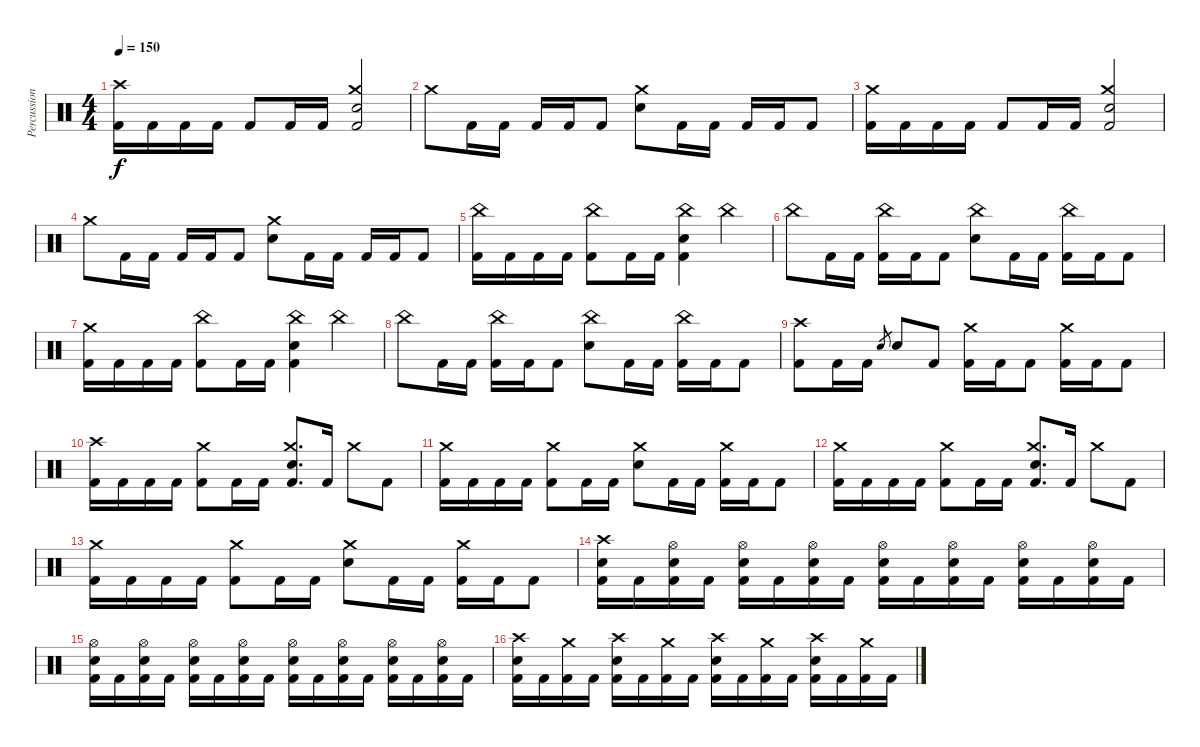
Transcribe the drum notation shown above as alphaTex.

\track ("Percussion" "Percussion") {instrument percussion}
\staff {score}
\articulation defaults
\ts (4 4)
\tempo 150
\clef neutral
\ks c
("Crash high (hit)" "Kick (hit) 2").16{dy f} "Kick (hit) 2".16 "Kick (hit) 2".16 "Kick (hit) 2".16 "Kick (hit) 2".8 "Kick (hit) 2".16 "Kick (hit) 2".16 ("Crash medium (hit)" "Electric Snare (hit)" "Kick (hit) 2").2 |
"Crash medium (hit)".8 "Kick (hit) 2".16 "Kick (hit) 2".16 "Kick (hit) 2".16 "Kick (hit) 2".16 "Kick (hit) 2".8 ("Crash medium (hit)" "Electric Snare (hit)").8 "Kick (hit) 2".16 "Kick (hit) 2".16 "Kick (hit) 2".16 "Kick (hit) 2".16 "Kick (hit) 2".8 |
("Crash medium (hit)" "Kick (hit) 2").16 "Kick (hit) 2".16 "Kick (hit) 2".16 "Kick (hit) 2".16 "Kick (hit) 2".8 "Kick (hit) 2".16 "Kick (hit) 2".16 ("Crash medium (hit)" "Electric Snare (hit)" "Kick (hit) 2").2 |
"Crash medium (hit)".8 "Kick (hit) 2".16 "Kick (hit) 2".16 "Kick (hit) 2".16 "Kick (hit) 2".16 "Kick (hit) 2".8 ("Crash medium (hit)" "Electric Snare (hit)").8 "Kick (hit) 2".16 "Kick (hit) 2".16 "Kick (hit) 2".16 "Kick (hit) 2".16 "Kick (hit) 2".8 |
("China (hit)" "Kick (hit) 2").16 "Kick (hit) 2".16 "Kick (hit) 2".16 "Kick (hit) 2".16 ("China (hit)" "Kick (hit) 2").8 "Kick (hit) 2".16 "Kick (hit) 2".16 ("China (hit)" "Electric Snare (hit)" "Kick (hit) 2").4 "China (hit)".4 |
"China (hit)".8 "Kick (hit) 2".16 "Kick (hit) 2".16 ("China (hit)" "Kick (hit) 2").16 "Kick (hit) 2".16 "Kick (hit) 2".8 ("China (hit)" "Electric Snare (hit)").8 "Kick (hit) 2".16 "Kick (hit) 2".16 ("China (hit)" "Kick (hit) 2").16 "Kick (hit) 2".16 "Kick (hit) 2".8 |
("Crash medium (hit)" "Kick (hit) 2").16 "Kick (hit) 2".16 "Kick (hit) 2".16 "Kick (hit) 2".16 ("China (hit)" "Kick (hit) 2").8 "Kick (hit) 2".16 "Kick (hit) 2".16 ("China (hit)" "Electric Snare (hit)" "Kick (hit) 2").4 "China (hit)".4 |
"China (hit)".8 "Kick (hit) 2".16 "Kick (hit) 2".16 ("China (hit)" "Kick (hit) 2").16 "Kick (hit) 2".16 "Kick (hit) 2".8 ("China (hit)" "Electric Snare (hit)").8 "Kick (hit) 2".16 "Kick (hit) 2".16 ("China (hit)" "Kick (hit) 2").16 "Kick (hit) 2".16 "Kick (hit) 2".8 |
("Crash high (hit)" "Kick (hit) 2").8 "Kick (hit) 2".16 "Kick (hit) 2".16 "Electric Snare (hit)".8{gr} "Electric Snare (hit)".8 "Kick (hit) 2".8 ("Crash medium (hit)" "Kick (hit) 2").16 "Kick (hit) 2".16 "Kick (hit) 2".8 ("Crash medium (hit)" "Kick (hit) 2").16 "Kick (hit) 2".16 "Kick (hit) 2".8 |
("Crash high (hit)" "Kick (hit) 2").16 "Kick (hit) 2".16 "Kick (hit) 2".16 "Kick (hit) 2".16 ("Crash medium (hit)" "Kick (hit) 2").8 "Kick (hit) 2".16 "Kick (hit) 2".16 ("Crash medium (hit)" "Electric Snare (hit)" "Kick (hit) 2").8{d} "Kick (hit) 2".16 "Crash medium (hit)".8 "Kick (hit) 2".8 |
("Crash medium (hit)" "Kick (hit) 2").16 "Kick (hit) 2".16 "Kick (hit) 2".16 "Kick (hit) 2".16 ("Crash medium (hit)" "Kick (hit) 2").8 "Kick (hit) 2".16 "Kick (hit) 2".16 ("Crash medium (hit)" "Electric Snare (hit)").8 "Kick (hit) 2".16 "Kick (hit) 2".16 ("Crash medium (hit)" "Kick (hit) 2").16 "Kick (hit) 2".16 "Kick (hit) 2".8 |
("Crash medium (hit)" "Kick (hit) 2").16 "Kick (hit) 2".16 "Kick (hit) 2".16 "Kick (hit) 2".16 ("Crash medium (hit)" "Kick (hit) 2").8 "Kick (hit) 2".16 "Kick (hit) 2".16 ("Crash medium (hit)" "Electric Snare (hit)" "Kick (hit) 2").8{d} "Kick (hit) 2".16 "Crash medium (hit)".8 "Kick (hit) 2".8 |
("Crash medium (hit)" "Kick (hit) 2").16 "Kick (hit) 2".16 "Kick (hit) 2".16 "Kick (hit) 2".16 ("Crash medium (hit)" "Kick (hit) 2").8 "Kick (hit) 2".16 "Kick (hit) 2".16 ("Crash medium (hit)" "Electric Snare (hit)").8 "Kick (hit) 2".16 "Kick (hit) 2".16 ("Crash medium (hit)" "Kick (hit) 2").16 "Kick (hit) 2".16 "Kick (hit) 2".8 |
("Crash high (hit)" "Electric Snare (hit)" "Kick (hit) 2").16 "Kick (hit) 2".16 ("Hi-Hat (open)" "Electric Snare (hit)" "Kick (hit) 2").16 "Kick (hit) 2".16 ("Hi-Hat (open)" "Electric Snare (hit)" "Kick (hit) 2").16 "Kick (hit) 2".16 ("Hi-Hat (open)" "Electric Snare (hit)" "Kick (hit) 2").16 "Kick (hit) 2".16 ("Hi-Hat (open)" "Electric Snare (hit)" "Kick (hit) 2").16 "Kick (hit) 2".16 ("Hi-Hat (open)" "Electric Snare (hit)" "Kick (hit) 2").16 "Kick (hit) 2".16 ("Hi-Hat (open)" "Electric Snare (hit)" "Kick (hit) 2").16 "Kick (hit) 2".16 ("Hi-Hat (open)" "Electric Snare (hit)" "Kick (hit) 2").16 "Kick (hit) 2".16 |
("Hi-Hat (open)" "Electric Snare (hit)" "Kick (hit) 2").16 "Kick (hit) 2".16 ("Hi-Hat (open)" "Electric Snare (hit)" "Kick (hit) 2").16 "Kick (hit) 2".16 ("Hi-Hat (open)" "Electric Snare (hit)" "Kick (hit) 2").16 "Kick (hit) 2".16 ("Hi-Hat (open)" "Electric Snare (hit)" "Kick (hit) 2").16 "Kick (hit) 2".16 ("Hi-Hat (open)" "Electric Snare (hit)" "Kick (hit) 2").16 "Kick (hit) 2".16 ("Hi-Hat (open)" "Electric Snare (hit)" "Kick (hit) 2").16 "Kick (hit) 2".16 ("Hi-Hat (open)" "Electric Snare (hit)" "Kick (hit) 2").16 "Kick (hit) 2".16 ("Hi-Hat (open)" "Electric Snare (hit)" "Kick (hit) 2").16 "Kick (hit) 2".16 |
("Crash high (hit)" "Electric Snare (hit)" "Kick (hit) 2").16 "Kick (hit) 2".16 ("Crash medium (hit)" "Kick (hit) 2").16 "Kick (hit) 2".16 ("Crash high (hit)" "Electric Snare (hit)" "Kick (hit) 2").16 "Kick (hit) 2".16 ("Crash medium (hit)" "Kick (hit) 2").16 "Kick (hit) 2".16 ("Crash high (hit)" "Electric Snare (hit)" "Kick (hit) 2").16 "Kick (hit) 2".16 ("Crash medium (hit)" "Kick (hit) 2").16 "Kick (hit) 2".16 ("Crash high (hit)" "Electric Snare (hit)" "Kick (hit) 2").16 "Kick (hit) 2".16 ("Crash medium (hit)" "Kick (hit) 2").16 "Kick (hit) 2".16
